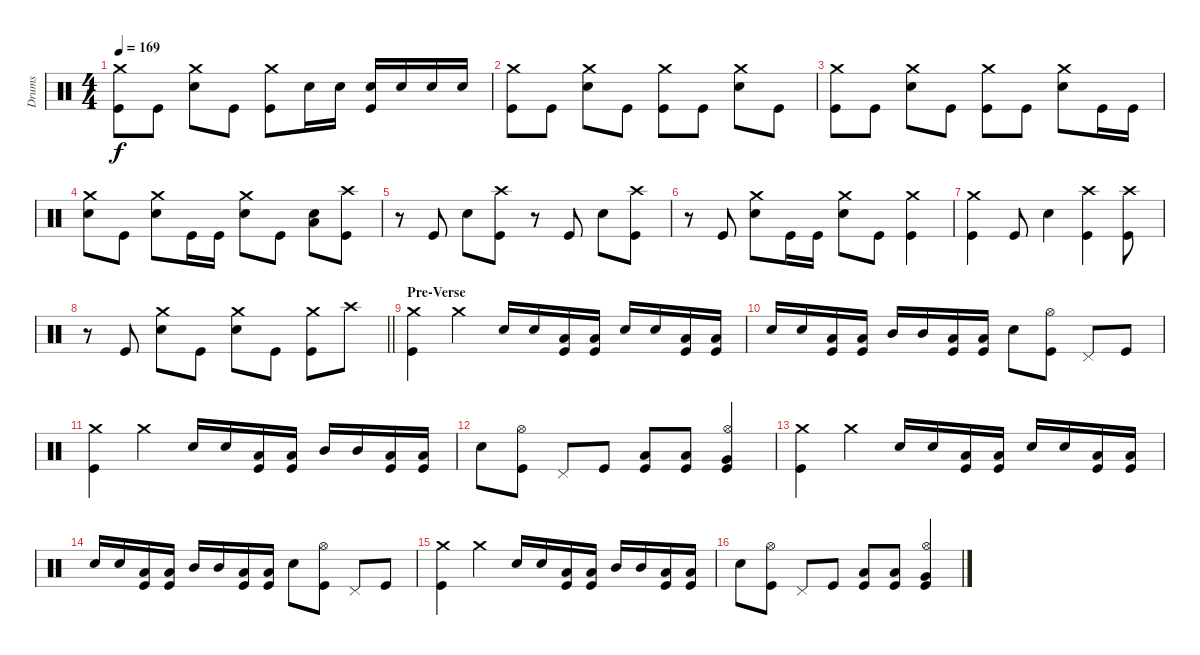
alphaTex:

\track ("Drums" "Drums") {instrument percussion}
\staff {score}
\articulation defaults
\ts (4 4)
\tempo 169
\clef neutral
\ks c
("Crash medium (hit)" "Kick (hit)").8{dy f} "Kick (hit)".8 ("Crash medium (hit)" "Snare (hit) 2").8 "Kick (hit)".8 ("Crash medium (hit)" "Kick (hit)").8 "Snare (hit) 2".16 "Snare (hit) 2".16 ("Snare (hit) 2" "Kick (hit)").16 "Snare (hit) 2".16 "Snare (hit) 2".16 "Snare (hit) 2".16 |
("Crash medium (hit)" "Kick (hit)").8 "Kick (hit)".8 ("Crash medium (hit)" "Snare (hit) 2").8 "Kick (hit)".8 ("Crash medium (hit)" "Kick (hit)").8 "Kick (hit)".8 ("Crash medium (hit)" "Snare (hit) 2").8 "Kick (hit)".8 |
("Crash medium (hit)" "Kick (hit)").8 "Kick (hit)".8 ("Crash medium (hit)" "Snare (hit) 2").8 "Kick (hit)".8 ("Crash medium (hit)" "Kick (hit)").8 "Kick (hit)".8 ("Crash medium (hit)" "Snare (hit) 2").8 "Kick (hit)".16 "Kick (hit)".16 |
("Crash medium (hit)" "Snare (hit) 2").8 "Kick (hit)".8 ("Crash medium (hit)" "Snare (hit) 2").8 "Kick (hit)".16 "Kick (hit)".16 ("Crash medium (hit)" "Snare (hit) 2").8 "Kick (hit)".8 ("Snare (hit) 2" "Low Tom (hit)").8 ("Crash high (hit)" "Kick (hit)").8 |
r.8 "Kick (hit)".8 "Snare (hit) 2".8 ("Crash high (hit)" "Kick (hit)").8 r.8 "Kick (hit)".8 "Snare (hit) 2".8 ("Crash high (hit)" "Kick (hit)").8 |
r.8 "Kick (hit)".8 ("Crash medium (hit)" "Snare (hit) 2").8 "Kick (hit)".16 "Kick (hit)".16 ("Crash medium (hit)" "Snare (hit) 2").8 "Kick (hit)".8 ("Crash medium (hit)" "Kick (hit)").4 |
("Crash medium (hit)" "Kick (hit)").4 "Kick (hit)".8 "Snare (hit) 2".4 ("Crash high (hit)" "Kick (hit)").4 ("Crash high (hit)" "Kick (hit)").8 |
\barLineRight lightlight
r.8 "Kick (hit)".8 ("Crash medium (hit)" "Snare (hit) 2").8 "Kick (hit)".8 ("Crash medium (hit)" "Snare (hit) 2").8 "Kick (hit)".8 ("Crash medium (hit)" "Kick (hit)").8 "Crash high (hit)".8 |
\section ("" "Pre-Verse")
("Crash medium (hit)" "Kick (hit)").4 "Crash medium (hit)".4 "Snare (hit) 2".16 "Snare (hit) 2".16 ("Low Tom (hit)" "Kick (hit)").16 ("Low Tom (hit)" "Kick (hit)").16 "Snare (hit) 2".16 "Snare (hit) 2".16 ("Low Tom (hit)" "Kick (hit)").16 ("Low Tom (hit)" "Kick (hit)").16 |
"Snare (hit) 2".16 "Snare (hit) 2".16 ("Low Tom (hit)" "Kick (hit)").16 ("Low Tom (hit)" "Kick (hit)").16 "Mid Tom (hit)".16 "Mid Tom (hit)".16 ("Low Tom (hit)" "Kick (hit)").16 ("Low Tom (hit)" "Kick (hit)").16 "Snare (hit) 2".8 ("Hi-Hat (open)" "Kick (hit)").8 "Pedal Hi-Hat (hit)".8 "Kick (hit)".8 |
("Crash medium (hit)" "Kick (hit)").4 "Crash medium (hit)".4 "Snare (hit) 2".16 "Snare (hit) 2".16 ("Low Tom (hit)" "Kick (hit)").16 ("Low Tom (hit)" "Kick (hit)").16 "Mid Tom (hit)".16 "Mid Tom (hit)".16 ("Low Tom (hit)" "Kick (hit)").16 ("Low Tom (hit)" "Kick (hit)").16 |
"Snare (hit) 2".8 ("Hi-Hat (open)" "Kick (hit)").8 "Pedal Hi-Hat (hit)".8 "Kick (hit)".8 ("Low Tom (hit)" "Kick (hit)").8 ("Low Tom (hit)" "Kick (hit)").8 ("Hi-Hat (open)" "Very Low Tom (hit)" "Kick (hit)").4 |
("Crash medium (hit)" "Kick (hit)").4 "Crash medium (hit)".4 "Snare (hit) 2".16 "Snare (hit) 2".16 ("Low Tom (hit)" "Kick (hit)").16 ("Low Tom (hit)" "Kick (hit)").16 "Snare (hit) 2".16 "Snare (hit) 2".16 ("Low Tom (hit)" "Kick (hit)").16 ("Low Tom (hit)" "Kick (hit)").16 |
"Snare (hit) 2".16 "Snare (hit) 2".16 ("Low Tom (hit)" "Kick (hit)").16 ("Low Tom (hit)" "Kick (hit)").16 "Mid Tom (hit)".16 "Mid Tom (hit)".16 ("Low Tom (hit)" "Kick (hit)").16 ("Low Tom (hit)" "Kick (hit)").16 "Snare (hit) 2".8 ("Hi-Hat (open)" "Kick (hit)").8 "Pedal Hi-Hat (hit)".8 "Kick (hit)".8 |
("Crash medium (hit)" "Kick (hit)").4 "Crash medium (hit)".4 "Snare (hit) 2".16 "Snare (hit) 2".16 ("Low Tom (hit)" "Kick (hit)").16 ("Low Tom (hit)" "Kick (hit)").16 "Mid Tom (hit)".16 "Mid Tom (hit)".16 ("Low Tom (hit)" "Kick (hit)").16 ("Low Tom (hit)" "Kick (hit)").16 |
"Snare (hit) 2".8 ("Hi-Hat (open)" "Kick (hit)").8 "Pedal Hi-Hat (hit)".8 "Kick (hit)".8 ("Low Tom (hit)" "Kick (hit)").8 ("Low Tom (hit)" "Kick (hit)").8 ("Hi-Hat (open)" "Very Low Tom (hit)" "Kick (hit)").4
